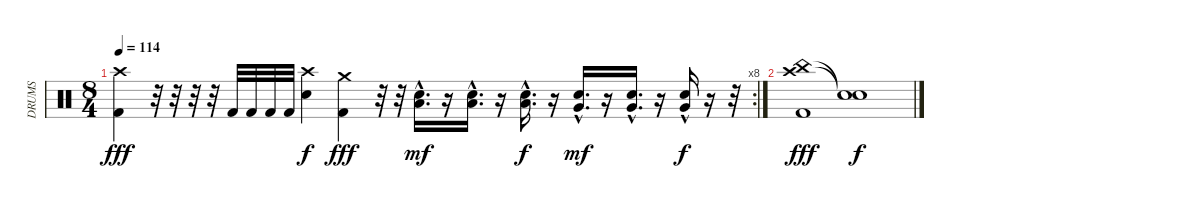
\track ("DRUMS" "DRUMS") {instrument percussion}
\staff {score}
\articulation defaults
\rc 8
\ts (8 4)
\tempo 114
\clef neutral
\ks c
("Crash high (hit)" "Kick (hit) 2").4{dy fff} r.32 r.32 r.32 r.32 "Kick (hit) 2".32 "Kick (hit) 2".32 "Kick (hit) 2".32 "Kick (hit) 2".32 ("Crash high (hit)" "Snare (hit) 2").4{dy f} ("Crash medium (hit)" "Kick (hit) 2").4{dy fff} r.32 r.32 ("Low Tom (hit)"{hac} "Snare (hit) 2"{hac}).16{d dy mf} r.16 ("Low Tom (hit)"{hac} "Snare (hit) 2"{hac}).16{d} r.16 ("Low Tom (hit)"{hac} "Snare (hit) 2"{hac}).16{d dy f} r.16 ("Very Low Tom (hit)"{hac} "Snare (hit) 2"{hac}).16{d dy mf} r.16 ("Very Low Tom (hit)"{hac} "Snare (hit) 2"{hac}).16{d} r.16 ("Very Low Tom (hit)" "Snare (hit) 2"{hac}).16{dy f} r.16 r.32 |
("Crash high (hit)" "China (hit)" "Kick (hit) 2").1{dy fff} ("Snare (hit)"{t} "Snare (hit)"{t}).1{dy f}
